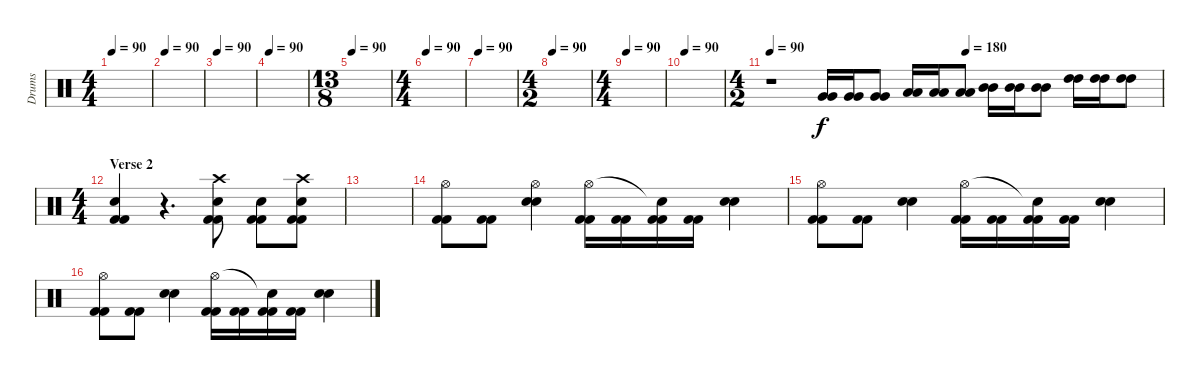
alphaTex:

\track ("Drums" "Drums") {instrument percussion}
\staff {score}
\articulation defaults
\ts (4 4)
\tempo 90
\clef neutral
\ks c
|
\tempo 90
|
\tempo 90
|
\tempo 90
|
\ts (13 8)
\tempo 90
|
\ts (4 4)
\tempo 90
|
\tempo 90
|
\ts (4 2)
\tempo 90
|
\ts (4 4)
\tempo 90
|
\tempo 90
|
\ts (4 2)
\tempo 90
\tempo (180 0.5)
r.1 ("Very Low Tom (hit)" "Very Low Tom (hit)").16 ("Very Low Tom (hit)" "Very Low Tom (hit)").16 ("Very Low Tom (hit)" "Very Low Tom (hit)").8 ("Low Tom (hit)" "Low Tom (hit)").16 ("Low Tom (hit)" "Low Tom (hit)").16 ("Low Tom (hit)" "Low Tom (hit)").8 ("Mid Tom (hit)" "Mid Tom (hit)").16 ("Mid Tom (hit)" "Mid Tom (hit)").16 ("Mid Tom (hit)" "Mid Tom (hit)").8 ("High Tom (hit)" "High Tom (hit)").16 ("High Tom (hit)" "High Tom (hit)").16 ("High Tom (hit)" "High Tom (hit)").8 |
\ts (4 4)
\section ("" "Verse 2")
("Snare (hit) 2" "Kick (hit) 2" "Kick (hit) 2").4 r.4{d} ("Crash high (hit)" "Snare (hit) 2" "Kick (hit) 2" "Kick (hit) 2").8 ("Electric Snare (hit)" "Kick (hit) 2" "Kick (hit) 2").8 ("Crash high (hit)" "Snare (hit) 2" "Kick (hit) 2" "Kick (hit) 2").8 |
|
("Kick (hit) 2" "Kick (hit) 2" "Hi-Hat (open)").8 ("Kick (hit) 2" "Kick (hit) 2").8 ("Electric Snare (hit)" "Electric Snare (hit)" "Hi-Hat (open)").4 ("Kick (hit) 2" "Kick (hit) 2" "Hi-Hat (open)").16 ("Kick (hit) 2" "Kick (hit) 2").16 ("Kick (hit) 2" "Kick (hit) 2" "Snare (hit)"{t}).16 ("Kick (hit) 2" "Kick (hit) 2").16 ("Electric Snare (hit)" "Electric Snare (hit)").4 |
("Kick (hit) 2" "Kick (hit) 2" "Hi-Hat (open)").8 ("Kick (hit) 2" "Kick (hit) 2").8 ("Electric Snare (hit)" "Electric Snare (hit)").4 ("Kick (hit) 2" "Kick (hit) 2" "Hi-Hat (open)").16 ("Kick (hit) 2" "Kick (hit) 2").16 ("Kick (hit) 2" "Kick (hit) 2" "Snare (hit)"{t}).16 ("Kick (hit) 2" "Kick (hit) 2").16 ("Electric Snare (hit)" "Electric Snare (hit)").4 |
("Kick (hit) 2" "Kick (hit) 2" "Hi-Hat (open)").8 ("Kick (hit) 2" "Kick (hit) 2").8 ("Electric Snare (hit)" "Electric Snare (hit)").4 ("Kick (hit) 2" "Kick (hit) 2" "Hi-Hat (open)").16 ("Kick (hit) 2" "Kick (hit) 2").16 ("Kick (hit) 2" "Kick (hit) 2" "Snare (hit)"{t}).16 ("Kick (hit) 2" "Kick (hit) 2").16 ("Electric Snare (hit)" "Electric Snare (hit)").4
